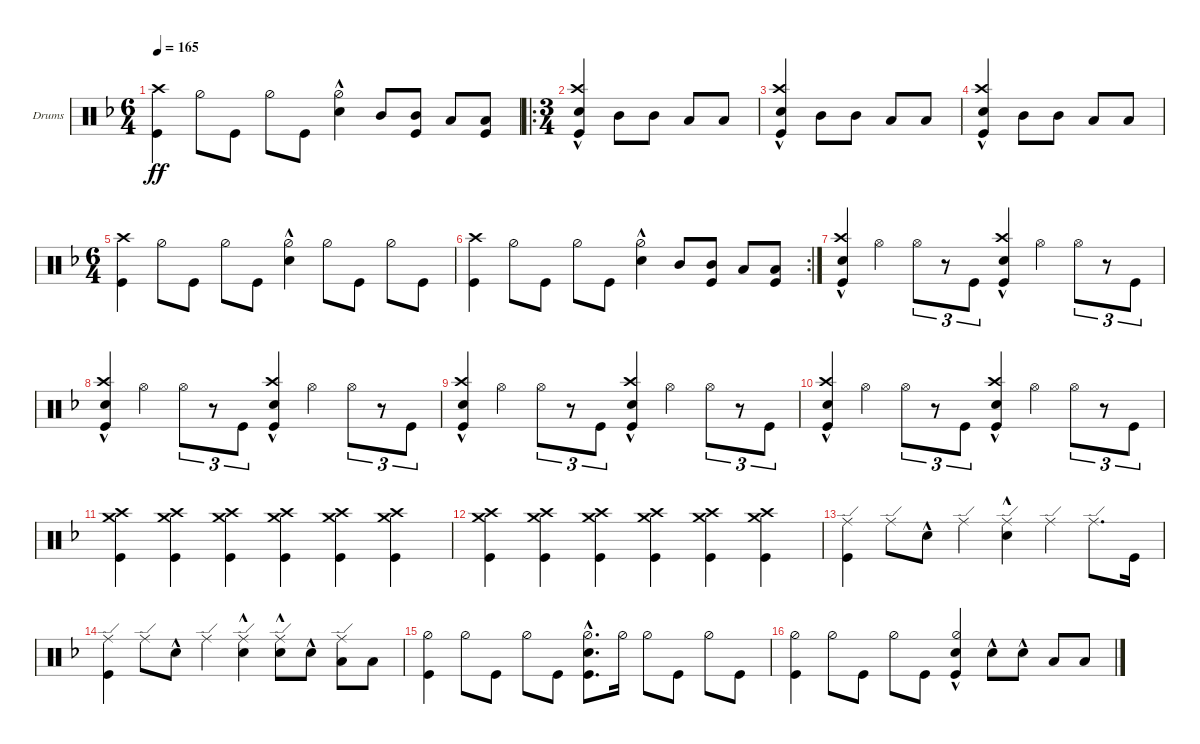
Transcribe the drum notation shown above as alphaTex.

\defaultSystemsLayout 4
\bracketExtendMode groupsimilarinstruments
\firstSystemTrackNameOrientation horizontal
\otherSystemsTrackNameOrientation horizontal
\track ("Drumkit" "Drums") {instrument percussion}
\staff {score}
\articulation defaults
\ts (6 4)
\tempo 165
\clef neutral
\ks f
("Kick (hit)" "Crash high (hit)").4{dy ff} "Hi-Hat (half)".8 "Kick (hit)".8 "Hi-Hat (half)".8 "Kick (hit)".8 ("Hi-Hat (half)" "Snare (hit) 2"{hac}).4 "Mid Tom (hit)".8 ("Kick (hit)" "Mid Tom (hit)").8 "Low Tom (hit)".8 ("Kick (hit)" "Low Tom (hit)").8 |
\ro
\ts (3 4)
("Kick (hit)" "Crash high (hit)" "Snare (hit) 2"{hac}).4 "Mid Tom (hit)".8 "Mid Tom (hit)".8 "Low Tom (hit)".8 "Low Tom (hit)".8 |
("Kick (hit)" "Crash high (hit)" "Snare (hit) 2"{hac}).4 "Mid Tom (hit)".8 "Mid Tom (hit)".8 "Low Tom (hit)".8 "Low Tom (hit)".8 |
("Kick (hit)" "Crash high (hit)" "Snare (hit) 2"{hac}).4 "Mid Tom (hit)".8 "Mid Tom (hit)".8 "Low Tom (hit)".8 "Low Tom (hit)".8 |
\ts (6 4)
("Kick (hit)" "Crash high (hit)").4 "Hi-Hat (half)".8 "Kick (hit)".8 "Hi-Hat (half)".8 "Kick (hit)".8 ("Hi-Hat (half)" "Snare (hit) 2"{hac}).4 "Hi-Hat (half)".8 "Kick (hit)".8 "Hi-Hat (half)".8 "Kick (hit)".8 |
\rc 2
("Kick (hit)" "Crash high (hit)").4 "Hi-Hat (half)".8 "Kick (hit)".8 "Hi-Hat (half)".8 "Kick (hit)".8 ("Hi-Hat (half)" "Snare (hit) 2"{hac}).4 "Mid Tom (hit)".8 ("Kick (hit)" "Mid Tom (hit)").8 "Low Tom (hit)".8 ("Kick (hit)" "Low Tom (hit)").8 |
("Crash high (hit)" "Kick (hit)" "Snare (hit) 2"{hac}).4 "Hi-Hat (open)".4 "Hi-Hat (open)".8{tu (3 2)} r.8{tu (3 2)} "Kick (hit)".8{tu (3 2)} ("Crash high (hit)" "Kick (hit)" "Snare (hit) 2"{hac}).4 "Hi-Hat (open)".4 "Hi-Hat (open)".8{tu (3 2)} r.8{tu (3 2)} "Kick (hit)".8{tu (3 2)} |
("Crash high (hit)" "Kick (hit)" "Snare (hit) 2"{hac}).4 "Hi-Hat (open)".4 "Hi-Hat (open)".8{tu (3 2)} r.8{tu (3 2)} "Kick (hit)".8{tu (3 2)} ("Crash high (hit)" "Kick (hit)" "Snare (hit) 2"{hac}).4 "Hi-Hat (open)".4 "Hi-Hat (open)".8{tu (3 2)} r.8{tu (3 2)} "Kick (hit)".8{tu (3 2)} |
("Crash high (hit)" "Kick (hit)" "Snare (hit) 2"{hac}).4 "Hi-Hat (open)".4 "Hi-Hat (open)".8{tu (3 2)} r.8{tu (3 2)} "Kick (hit)".8{tu (3 2)} ("Crash high (hit)" "Kick (hit)" "Snare (hit) 2"{hac}).4 "Hi-Hat (open)".4 "Hi-Hat (open)".8{tu (3 2)} r.8{tu (3 2)} "Kick (hit)".8{tu (3 2)} |
("Crash high (hit)" "Kick (hit)" "Snare (hit) 2"{hac}).4 "Hi-Hat (open)".4 "Hi-Hat (open)".8{tu (3 2)} r.8{tu (3 2)} "Kick (hit)".8{tu (3 2)} ("Crash high (hit)" "Kick (hit)" "Snare (hit) 2"{hac}).4 "Hi-Hat (open)".4 "Hi-Hat (open)".8{tu (3 2)} r.8{tu (3 2)} "Kick (hit)".8{tu (3 2)} |
("Kick (hit)" "Crash high (hit)" "Crash medium (hit)").4 ("Kick (hit)" "Crash high (hit)" "Crash medium (hit)").4 ("Kick (hit)" "Crash high (hit)" "Crash medium (hit)").4 ("Kick (hit)" "Crash high (hit)" "Crash medium (hit)").4 ("Kick (hit)" "Crash high (hit)" "Crash medium (hit)").4 ("Kick (hit)" "Crash high (hit)" "Crash medium (hit)").4 |
("Kick (hit)" "Crash high (hit)" "Crash medium (hit)").4 ("Kick (hit)" "Crash high (hit)" "Crash medium (hit)").4 ("Kick (hit)" "Crash high (hit)" "Crash medium (hit)").4 ("Kick (hit)" "Crash high (hit)" "Crash medium (hit)").4 ("Kick (hit)" "Crash high (hit)" "Crash medium (hit)").4 ("Kick (hit)" "Crash high (hit)" "Crash medium (hit)").4 |
("Ride (edge)" "Kick (hit)").4 "Ride (edge)".8 "Snare (hit) 2"{hac}.8 "Ride (edge)".4 ("Ride (edge)" "Snare (hit) 2"{hac}).4 "Ride (edge)".4 "Ride (edge)".8{d} "Kick (hit)".16 |
("Ride (edge)" "Kick (hit)").4 "Ride (edge)".8 "Snare (hit) 2"{hac}.8 "Ride (edge)".4 ("Ride (edge)" "Snare (hit) 2"{hac}).4 ("Ride (edge)" "Snare (hit) 2"{hac}).8 "Snare (hit) 2"{hac}.8 ("Ride (edge)" "Low Tom (hit)").8 "Low Tom (hit)".8 |
("Hi-Hat (half)" "Kick (hit)").4 "Hi-Hat (half)".8 "Kick (hit)".8 "Hi-Hat (half)".8 "Kick (hit)".8 ("Hi-Hat (half)" "Kick (hit)" "Snare (hit) 2"{hac}).8{d} "Hi-Hat (half)".16 "Hi-Hat (half)".8 "Kick (hit)".8 "Hi-Hat (half)".8 "Kick (hit)".8 |
("Hi-Hat (half)" "Kick (hit)").4 "Hi-Hat (half)".8 "Kick (hit)".8 "Hi-Hat (half)".8 "Kick (hit)".8 ("Hi-Hat (half)" "Kick (hit)" "Snare (hit) 2"{hac}).4 "Snare (hit) 2"{hac}.8 "Snare (hit) 2"{hac}.8 "Low Tom (hit)".8 "Low Tom (hit)".8
